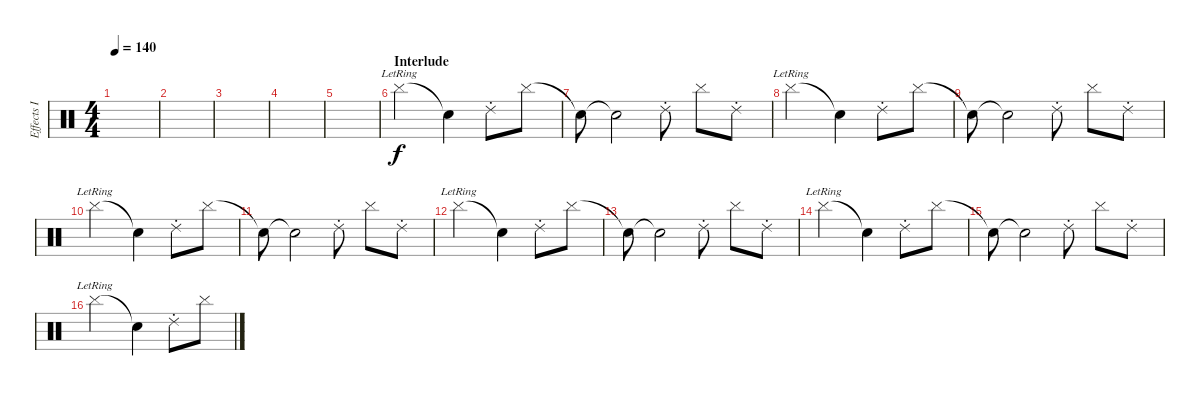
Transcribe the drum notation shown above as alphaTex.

\track ("Effects I" "Effects I") {instrument percussion}
\staff {score}
\articulation defaults
\ts (4 4)
\tempo 140
\clef neutral
\ks c
|
|
|
|
|
\section ("" "Interlude")
"Cymbal (hit)"{lr}.2{dy f volume 16} "Snare (hit)"{t}.4 "Ride (choke) 2".8 "Cymbal (hit)".8 |
"Snare (hit)"{t}.8 "Snare (hit)"{t}.2 "Ride (choke) 2".8 "Cymbal (hit)".8 "Ride (choke) 2".8 |
"Cymbal (hit)"{lr}.2 "Snare (hit)"{t}.4 "Ride (choke) 2".8 "Cymbal (hit)".8 |
"Snare (hit)"{t}.8 "Snare (hit)"{t}.2 "Ride (choke) 2".8 "Cymbal (hit)".8 "Ride (choke) 2".8 |
"Cymbal (hit)"{lr}.2 "Snare (hit)"{t}.4 "Ride (choke) 2".8 "Cymbal (hit)".8 |
"Snare (hit)"{t}.8 "Snare (hit)"{t}.2 "Ride (choke) 2".8 "Cymbal (hit)".8 "Ride (choke) 2".8 |
"Cymbal (hit)"{lr}.2 "Snare (hit)"{t}.4 "Ride (choke) 2".8 "Cymbal (hit)".8 |
"Snare (hit)"{t}.8 "Snare (hit)"{t}.2 "Ride (choke) 2".8 "Cymbal (hit)".8 "Ride (choke) 2".8 |
"Cymbal (hit)"{lr}.2 "Snare (hit)"{t}.4 "Ride (choke) 2".8 "Cymbal (hit)".8 |
"Snare (hit)"{t}.8 "Snare (hit)"{t}.2 "Ride (choke) 2".8 "Cymbal (hit)".8 "Ride (choke) 2".8 |
"Cymbal (hit)"{lr}.2 "Snare (hit)"{t}.4 "Ride (choke) 2".8 "Cymbal (hit)".8
